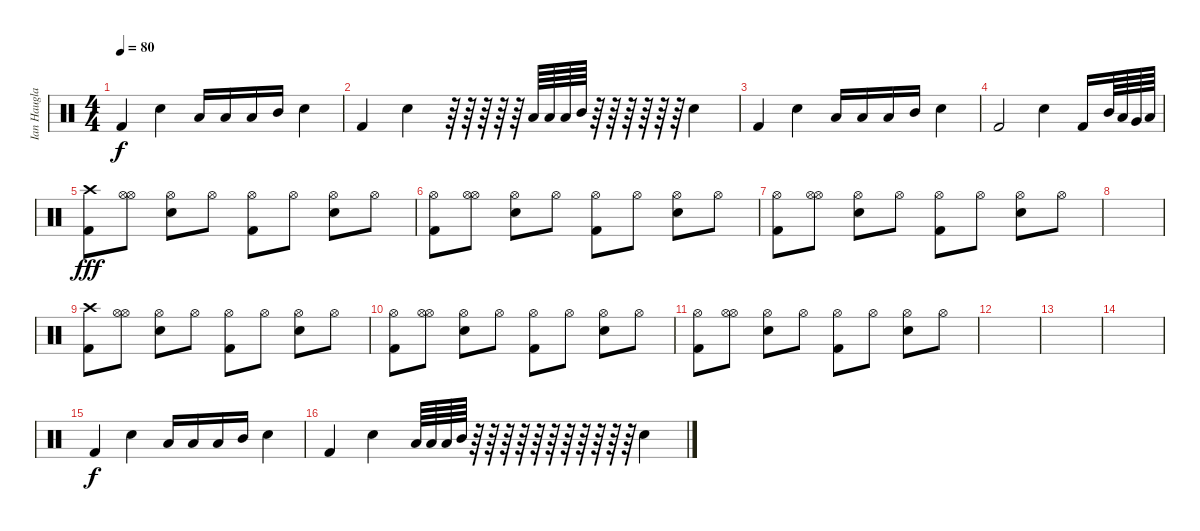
\track ("Ian Haugland" "Ian Haugla") {instrument percussion}
\staff {score}
\articulation defaults
\ts (4 4)
\tempo 80
\clef neutral
\ks c "Kick (hit) 2".4{dy f} "Electric Snare (hit)".4 "Low Floor Tom (hit)".16 "Low Tom (hit)".16 "Low Floor Tom (hit)".16 "Mid Tom (hit)".16 "Electric Snare (hit)".4
|
"Kick (hit) 2".4 "Electric Snare (hit)".4 r.64 r.64 r.64 r.64 r.64 "Low Floor Tom (hit)".64 "Low Tom (hit)".64 "Low Floor Tom (hit)".64 "Mid Tom (hit)".64 r.64 r.64 r.64 r.64 r.64 r.64 "Electric Snare (hit)".4 |
"Kick (hit) 2".4 "Electric Snare (hit)".4 "Low Floor Tom (hit)".16 "Low Tom (hit)".16 "Low Floor Tom (hit)".16 "Mid Tom (hit)".16 "Electric Snare (hit)".4 |
"Kick (hit) 2".2 "Electric Snare (hit)".4 "Kick (hit) 2".16 "Mid Tom (hit)".64 "Low Tom (hit)".64 "Very Low Tom (hit)".64 "Low Floor Tom (hit)".64 |
("Crash high (hit)" "Kick (hit) 2").8{dy fff} ("Hi-Hat (open)" "Hi-Hat (open)").8 ("Electric Snare (hit)" "Hi-Hat (open)").8 "Hi-Hat (open)".8 ("Hi-Hat (open)" "Kick (hit) 2").8 "Hi-Hat (open)".8 ("Hi-Hat (open)" "Electric Snare (hit)").8 "Hi-Hat (open)".8 |
("Hi-Hat (open)" "Kick (hit) 2").8 ("Hi-Hat (open)" "Hi-Hat (open)").8 ("Electric Snare (hit)" "Hi-Hat (open)").8 "Hi-Hat (open)".8 ("Hi-Hat (open)" "Kick (hit) 2").8 "Hi-Hat (open)".8 ("Hi-Hat (open)" "Electric Snare (hit)").8 "Hi-Hat (open)".8 |
("Hi-Hat (open)" "Kick (hit) 2").8 ("Hi-Hat (open)" "Hi-Hat (open)").8 ("Electric Snare (hit)" "Hi-Hat (open)").8 "Hi-Hat (open)".8 ("Hi-Hat (open)" "Kick (hit) 2").8 "Hi-Hat (open)".8 ("Hi-Hat (open)" "Electric Snare (hit)").8 "Hi-Hat (open)".8 |
|
("Crash high (hit)" "Kick (hit) 2").8 ("Hi-Hat (open)" "Hi-Hat (open)").8 ("Electric Snare (hit)" "Hi-Hat (open)").8 "Hi-Hat (open)".8 ("Hi-Hat (open)" "Kick (hit) 2").8 "Hi-Hat (open)".8 ("Hi-Hat (open)" "Electric Snare (hit)").8 "Hi-Hat (open)".8 |
("Hi-Hat (open)" "Kick (hit) 2").8 ("Hi-Hat (open)" "Hi-Hat (open)").8 ("Electric Snare (hit)" "Hi-Hat (open)").8 "Hi-Hat (open)".8 ("Hi-Hat (open)" "Kick (hit) 2").8 "Hi-Hat (open)".8 ("Hi-Hat (open)" "Electric Snare (hit)").8 "Hi-Hat (open)".8 |
("Hi-Hat (open)" "Kick (hit) 2").8 ("Hi-Hat (open)" "Hi-Hat (open)").8 ("Electric Snare (hit)" "Hi-Hat (open)").8 "Hi-Hat (open)".8 ("Hi-Hat (open)" "Kick (hit) 2").8 "Hi-Hat (open)".8 ("Hi-Hat (open)" "Electric Snare (hit)").8 "Hi-Hat (open)".8 |
|
|
|
"Kick (hit) 2".4{dy f} "Electric Snare (hit)".4 "Low Floor Tom (hit)".16 "Low Tom (hit)".16 "Low Floor Tom (hit)".16 "Mid Tom (hit)".16 "Electric Snare (hit)".4 |
"Kick (hit) 2".4 "Electric Snare (hit)".4 "Low Floor Tom (hit)".64 "Low Tom (hit)".64 "Low Floor Tom (hit)".64 "Mid Tom (hit)".64 r.64 r.64 r.64 r.64 r.64 r.64 r.64 r.64 r.64 r.64 r.64 "Electric Snare (hit)".4
